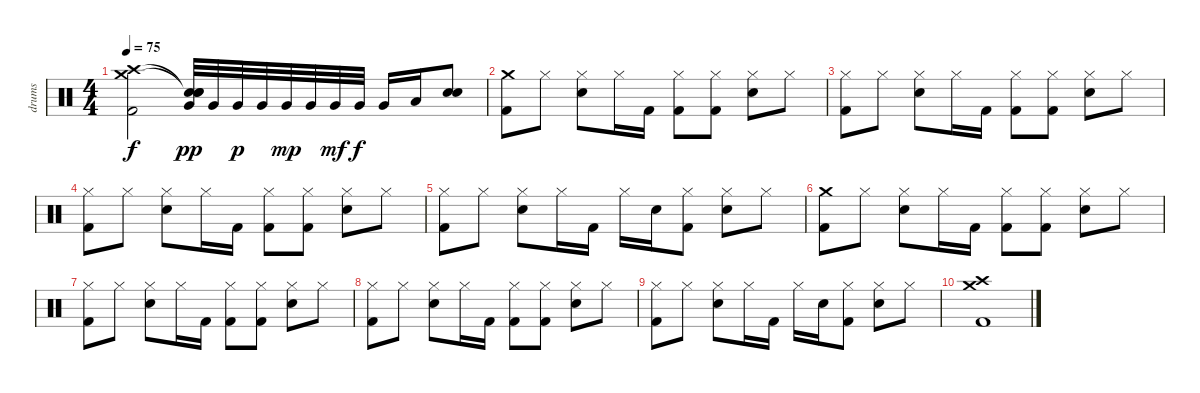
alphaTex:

\track ("drums" "drums") {instrument percussion}
\staff {score}
\articulation defaults
\ts (4 4)
\tempo 75
\clef neutral
\ks c
("Crash medium (hit)" "Crash high (hit)" "Kick (hit) 2").2{dy f} ("Snare (hit)"{t} "Snare (hit)"{t} "Very Low Tom (hit)" "Snare (hit)").32{dy pp} "Very Low Tom (hit)".32 "Very Low Tom (hit)".32{dy p} "Very Low Tom (hit)".32 "Very Low Tom (hit)".32{dy mp} "Very Low Tom (hit)".32 "Very Low Tom (hit)".32{dy mf} "Very Low Tom (hit)".32{dy f} "Very Low Tom (hit)".16 "Low Tom (hit)".16 ("Electric Snare (hit)" "Electric Snare (hit)").8 |
("Crash medium (hit)" "Kick (hit) 2").8 "Hi-Hat (closed)".8 ("Hi-Hat (closed)" "Snare (hit) 2").8 "Hi-Hat (closed)".16 "Kick (hit) 2".16 ("Hi-Hat (closed)" "Kick (hit) 2").8 ("Hi-Hat (closed)" "Kick (hit) 2").8 ("Hi-Hat (closed)" "Snare (hit) 2").8 "Hi-Hat (closed)".8 |
("Hi-Hat (closed)" "Kick (hit) 2").8 "Hi-Hat (closed)".8 ("Hi-Hat (closed)" "Snare (hit) 2").8 "Hi-Hat (closed)".16 "Kick (hit) 2".16 ("Hi-Hat (closed)" "Kick (hit) 2").8 ("Hi-Hat (closed)" "Kick (hit) 2").8 ("Hi-Hat (closed)" "Snare (hit) 2").8 "Hi-Hat (closed)".8 |
("Hi-Hat (closed)" "Kick (hit) 2").8 "Hi-Hat (closed)".8 ("Hi-Hat (closed)" "Snare (hit) 2").8 "Hi-Hat (closed)".16 "Kick (hit) 2".16 ("Hi-Hat (closed)" "Kick (hit) 2").8 ("Hi-Hat (closed)" "Kick (hit) 2").8 ("Hi-Hat (closed)" "Snare (hit) 2").8 "Hi-Hat (closed)".8 |
("Hi-Hat (closed)" "Kick (hit) 2").8 "Hi-Hat (closed)".8 ("Hi-Hat (closed)" "Snare (hit) 2").8 "Hi-Hat (closed)".16 "Kick (hit) 2".16 "Hi-Hat (closed)".16 "Snare (hit) 2".16 ("Hi-Hat (closed)" "Kick (hit) 2").8 ("Hi-Hat (closed)" "Snare (hit) 2").8 "Hi-Hat (closed)".8 |
("Crash medium (hit)" "Kick (hit) 2").8 "Hi-Hat (closed)".8 ("Hi-Hat (closed)" "Snare (hit) 2").8 "Hi-Hat (closed)".16 "Kick (hit) 2".16 ("Hi-Hat (closed)" "Kick (hit) 2").8 ("Hi-Hat (closed)" "Kick (hit) 2").8 ("Hi-Hat (closed)" "Snare (hit) 2").8 "Hi-Hat (closed)".8 |
("Hi-Hat (closed)" "Kick (hit) 2").8 "Hi-Hat (closed)".8 ("Hi-Hat (closed)" "Snare (hit) 2").8 "Hi-Hat (closed)".16 "Kick (hit) 2".16 ("Hi-Hat (closed)" "Kick (hit) 2").8 ("Hi-Hat (closed)" "Kick (hit) 2").8 ("Hi-Hat (closed)" "Snare (hit) 2").8 "Hi-Hat (closed)".8 |
("Hi-Hat (closed)" "Kick (hit) 2").8 "Hi-Hat (closed)".8 ("Hi-Hat (closed)" "Snare (hit) 2").8 "Hi-Hat (closed)".16 "Kick (hit) 2".16 ("Hi-Hat (closed)" "Kick (hit) 2").8 ("Hi-Hat (closed)" "Kick (hit) 2").8 ("Hi-Hat (closed)" "Snare (hit) 2").8 "Hi-Hat (closed)".8 |
("Hi-Hat (closed)" "Kick (hit) 2").8 "Hi-Hat (closed)".8 ("Hi-Hat (closed)" "Snare (hit) 2").8 "Hi-Hat (closed)".16 "Kick (hit) 2".16 "Hi-Hat (closed)".16 "Snare (hit) 2".16 ("Hi-Hat (closed)" "Kick (hit) 2").8 ("Hi-Hat (closed)" "Snare (hit) 2").8 "Hi-Hat (closed)".8 |
("Crash high (hit)" "Crash medium (hit)" "Kick (hit) 2").1
